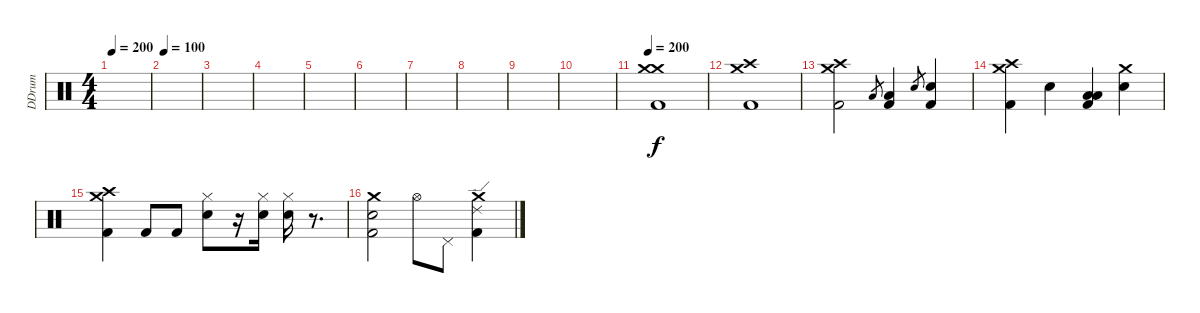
\track ("DDrum" "DDrum") {instrument percussion}
\staff {score}
\articulation defaults
\ts (4 4)
\tempo 200
\clef neutral
\ks c
|
\tempo 100
|
|
|
|
|
|
|
|
|
\tempo 200
("Crash medium (hit)" "Crash medium (hit)" "Kick (hit) 2").1 |
("Crash high (hit)" "Crash medium (hit)" "Kick (hit) 2").1 |
("Crash medium (hit)" "Crash high (hit)" "Kick (hit) 2").2 "Low Tom (hit)".8{gr} ("Low Tom (hit)" "Kick (hit) 2").4 "Electric Snare (hit)".8{gr} ("Electric Snare (hit)" "Kick (hit) 2").4 |
("Crash medium (hit)" "Crash high (hit)" "Kick (hit) 2").4 "Electric Snare (hit)".4 ("Low Floor Tom (hit)" "Low Tom (hit)" "Kick (hit) 2").4 ("Crash medium (hit)" "Electric Snare (hit)").4 |
("Crash medium (hit)" "Crash high (hit)" "Kick (hit) 2").4 "Kick (hit) 2".8 "Kick (hit) 2".8 ("Hi-Hat (closed)" "Electric Snare (hit)").8 r.16 ("Hi-Hat (closed)" "Electric Snare (hit)").16 ("Hi-Hat (closed)" "Electric Snare (hit)").16 r.8{d} |
("Crash medium (hit)" "Electric Snare (hit)" "Kick (hit) 2").2 "Hi-Hat (open)".8 "Pedal Hi-Hat (hit)".8 ("Crash medium (hit)" "Ride (edge) 2" "Kick (hit) 2").4
